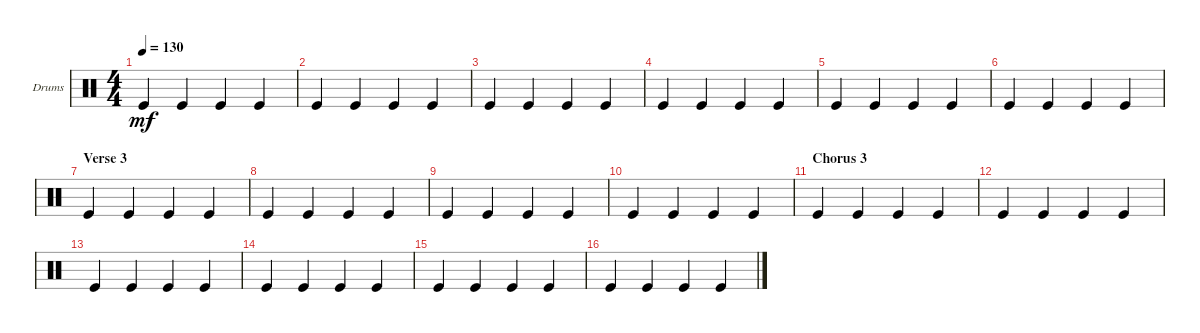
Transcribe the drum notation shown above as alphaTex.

\bracketExtendMode groupsimilarinstruments
\firstSystemTrackNameOrientation horizontal
\otherSystemsTrackNameOrientation horizontal
\chordDiagramsInScore
\track ("Drumkit" "Drums") {instrument percussion}
\staff {score}
\articulation defaults
\ts (4 4)
\tempo 130
\clef neutral
\ks c "Kick (hit)".4{dy mf} "Kick (hit)".4 "Kick (hit)".4 "Kick (hit)".4
|
"Kick (hit)".4 "Kick (hit)".4 "Kick (hit)".4 "Kick (hit)".4 |
"Kick (hit)".4 "Kick (hit)".4 "Kick (hit)".4 "Kick (hit)".4 |
"Kick (hit)".4 "Kick (hit)".4 "Kick (hit)".4 "Kick (hit)".4 |
"Kick (hit)".4 "Kick (hit)".4 "Kick (hit)".4 "Kick (hit)".4 |
"Kick (hit)".4 "Kick (hit)".4 "Kick (hit)".4 "Kick (hit)".4 |
\section ("" "Verse 3")
"Kick (hit)".4 "Kick (hit)".4 "Kick (hit)".4 "Kick (hit)".4 |
"Kick (hit)".4 "Kick (hit)".4 "Kick (hit)".4 "Kick (hit)".4 |
"Kick (hit)".4 "Kick (hit)".4 "Kick (hit)".4 "Kick (hit)".4 |
"Kick (hit)".4 "Kick (hit)".4 "Kick (hit)".4 "Kick (hit)".4 |
\section ("" "Chorus 3")
"Kick (hit)".4 "Kick (hit)".4 "Kick (hit)".4 "Kick (hit)".4 |
"Kick (hit)".4 "Kick (hit)".4 "Kick (hit)".4 "Kick (hit)".4 |
"Kick (hit)".4 "Kick (hit)".4 "Kick (hit)".4 "Kick (hit)".4 |
"Kick (hit)".4 "Kick (hit)".4 "Kick (hit)".4 "Kick (hit)".4 |
"Kick (hit)".4 "Kick (hit)".4 "Kick (hit)".4 "Kick (hit)".4 |
"Kick (hit)".4 "Kick (hit)".4 "Kick (hit)".4 "Kick (hit)".4
